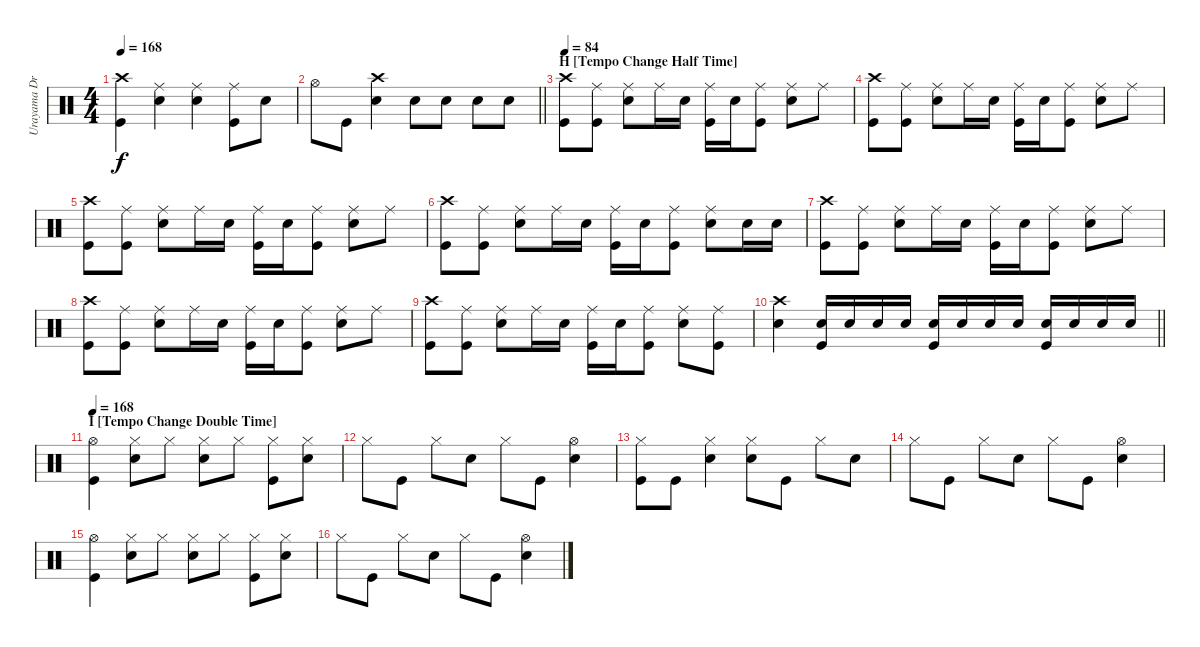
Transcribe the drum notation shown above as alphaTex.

\track ("Urayama Drums" "Urayama Dr") {instrument percussion}
\staff {score}
\articulation defaults
\ts (4 4)
\tempo 168
\clef neutral
\ks c
("Crash high (hit)" "Kick (hit)").4{dy f} ("Ride (middle)" "Electric Snare (hit)").4 ("Ride (middle)" "Electric Snare (hit)").4 ("Ride (middle)" "Kick (hit)").8 "Electric Snare (hit)".8 |
\barLineRight lightlight "Hi-Hat (open)".8 "Kick (hit)".8
("Crash high (hit)" "Electric Snare (hit)").4 "Electric Snare (hit)".8 "Electric Snare (hit)".8 "Electric Snare (hit)".8 "Electric Snare (hit)".8 |
\section ("" "H [Tempo Change Half Time]")
\tempo 84
("Crash high (hit)" "Kick (hit)").8 ("Ride (middle)" "Kick (hit)").8 ("Ride (middle)" "Electric Snare (hit)").8 "Ride (middle)".16 "Electric Snare (hit)".16 ("Ride (middle)" "Kick (hit)").16 "Electric Snare (hit)".16 ("Ride (middle)" "Kick (hit)").8 ("Ride (middle)" "Electric Snare (hit)").8 "Ride (middle)".8 |
("Crash high (hit)" "Kick (hit)").8 ("Ride (middle)" "Kick (hit)").8 ("Ride (middle)" "Electric Snare (hit)").8 "Ride (middle)".16 "Electric Snare (hit)".16 ("Ride (middle)" "Kick (hit)").16 "Electric Snare (hit)".16 ("Ride (middle)" "Kick (hit)").8 ("Ride (middle)" "Electric Snare (hit)").8 "Ride (middle)".8 |
("Crash high (hit)" "Kick (hit)").8 ("Ride (middle)" "Kick (hit)").8 ("Ride (middle)" "Electric Snare (hit)").8 "Ride (middle)".16 "Electric Snare (hit)".16 ("Ride (middle)" "Kick (hit)").16 "Electric Snare (hit)".16 ("Ride (middle)" "Kick (hit)").8 ("Ride (middle)" "Electric Snare (hit)").8 "Ride (middle)".8 |
("Crash high (hit)" "Kick (hit)").8 ("Ride (middle)" "Kick (hit)").8 ("Ride (middle)" "Electric Snare (hit)").8 "Ride (middle)".16 "Electric Snare (hit)".16 ("Ride (middle)" "Kick (hit)").16 "Electric Snare (hit)".16 ("Ride (middle)" "Kick (hit)").8 ("Ride (middle)" "Electric Snare (hit)").8 "Electric Snare (hit)".16 "Electric Snare (hit)".16 |
("Crash high (hit)" "Kick (hit)").8 ("Ride (middle)" "Kick (hit)").8 ("Ride (middle)" "Electric Snare (hit)").8 "Ride (middle)".16 "Electric Snare (hit)".16 ("Ride (middle)" "Kick (hit)").16 "Electric Snare (hit)".16 ("Ride (middle)" "Kick (hit)").8 ("Ride (middle)" "Electric Snare (hit)").8 "Ride (middle)".8 |
("Crash high (hit)" "Kick (hit)").8 ("Ride (middle)" "Kick (hit)").8 ("Ride (middle)" "Electric Snare (hit)").8 "Ride (middle)".16 "Electric Snare (hit)".16 ("Ride (middle)" "Kick (hit)").16 "Electric Snare (hit)".16 ("Ride (middle)" "Kick (hit)").8 ("Ride (middle)" "Electric Snare (hit)").8 "Ride (middle)".8 |
("Crash high (hit)" "Kick (hit)").8 ("Ride (middle)" "Kick (hit)").8 ("Ride (middle)" "Electric Snare (hit)").8 "Ride (middle)".16 "Electric Snare (hit)".16 ("Ride (middle)" "Kick (hit)").16 "Electric Snare (hit)".16 ("Ride (middle)" "Kick (hit)").8 ("Ride (middle)" "Electric Snare (hit)").8 ("Ride (middle)" "Kick (hit)").8 |
\barLineRight lightlight
("Crash high (hit)" "Electric Snare (hit)").4 ("Electric Snare (hit)" "Kick (hit)").16{volume 15} "Electric Snare (hit)".16 "Electric Snare (hit)".16 "Electric Snare (hit)".16 ("Electric Snare (hit)" "Kick (hit)").16 "Electric Snare (hit)".16 "Electric Snare (hit)".16 "Electric Snare (hit)".16 ("Electric Snare (hit)" "Kick (hit)").16 "Electric Snare (hit)".16 "Electric Snare (hit)".16 "Electric Snare (hit)".16 |
\section ("" "I [Tempo Change Double Time]")
\tempo 168
("Hi-Hat (open)" "Kick (hit)").4{volume 12} ("Hi-Hat (closed)" "Electric Snare (hit)").8 "Hi-Hat (closed)".8 ("Hi-Hat (closed)" "Electric Snare (hit)").8 "Hi-Hat (closed)".8 ("Hi-Hat (closed)" "Kick (hit)").8 ("Hi-Hat (closed)" "Electric Snare (hit)").8 |
"Hi-Hat (closed)".8 "Kick (hit)".8 "Hi-Hat (closed)".8 "Electric Snare (hit)".8 "Hi-Hat (closed)".8 "Kick (hit)".8 ("Hi-Hat (open)" "Electric Snare (hit)").4 |
("Hi-Hat (closed)" "Kick (hit)").8 "Kick (hit)".8 ("Hi-Hat (closed)" "Electric Snare (hit)").4 ("Hi-Hat (closed)" "Electric Snare (hit)").8 "Kick (hit)".8 "Hi-Hat (closed)".8 "Electric Snare (hit)".8 |
"Hi-Hat (closed)".8 "Kick (hit)".8 "Hi-Hat (closed)".8 "Electric Snare (hit)".8 "Hi-Hat (closed)".8 "Kick (hit)".8 ("Hi-Hat (open)" "Electric Snare (hit)").4 |
("Hi-Hat (open)" "Kick (hit)").4 ("Hi-Hat (closed)" "Electric Snare (hit)").8 "Hi-Hat (closed)".8 ("Hi-Hat (closed)" "Electric Snare (hit)").8 "Hi-Hat (closed)".8 ("Hi-Hat (closed)" "Kick (hit)").8 ("Hi-Hat (closed)" "Electric Snare (hit)").8 |
"Hi-Hat (closed)".8 "Kick (hit)".8 "Hi-Hat (closed)".8 "Electric Snare (hit)".8 "Hi-Hat (closed)".8 "Kick (hit)".8 ("Hi-Hat (open)" "Electric Snare (hit)").4
